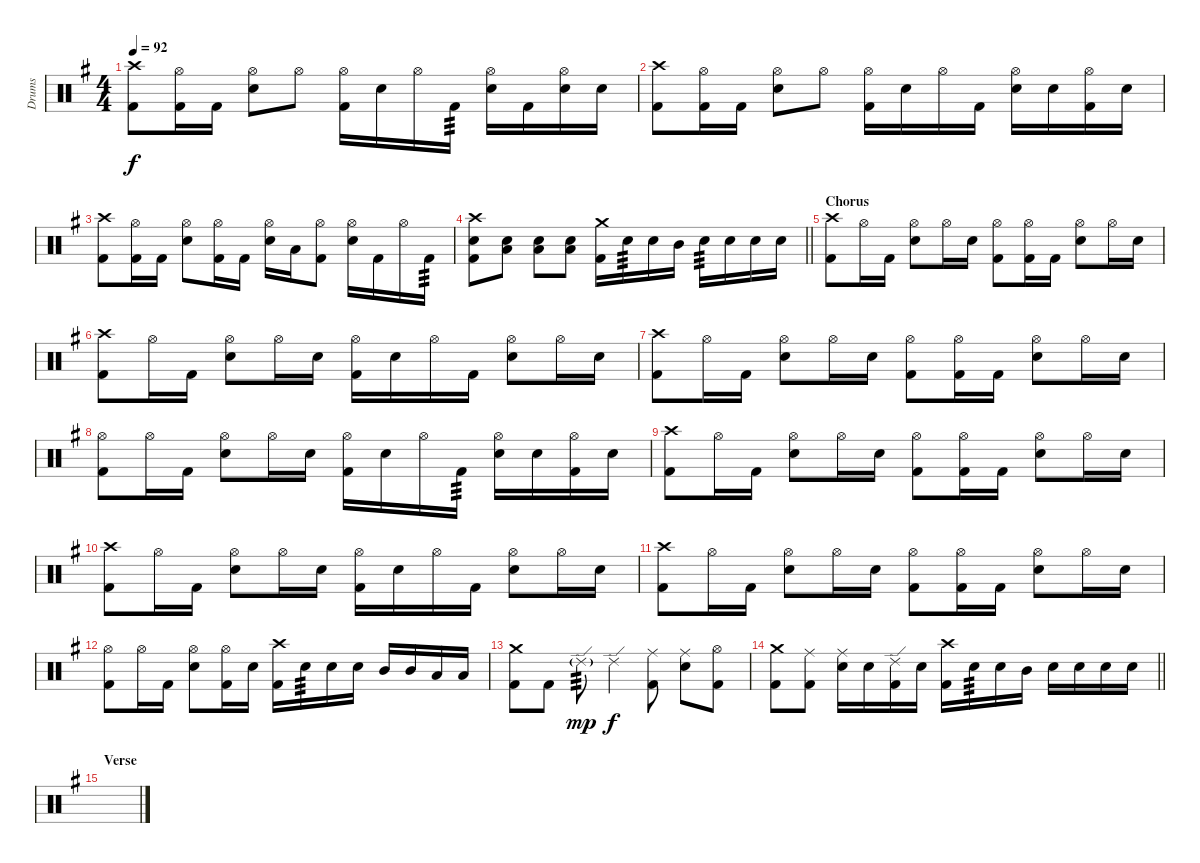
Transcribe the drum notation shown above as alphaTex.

\track ("Drums" "Drums") {instrument percussion}
\staff {score}
\articulation defaults
\ts (4 4)
\tempo 92
\clef neutral
\ks g
("Crash high (hit)" "Kick (hit) 2").8{dy f} ("Hi-Hat (open)" "Kick (hit) 2").16 "Kick (hit) 2".16 ("Hi-Hat (open)" "Electric Snare (hit)").8 "Hi-Hat (open)".8 ("Hi-Hat (open)" "Kick (hit) 2").16 "Electric Snare (hit)".16 "Hi-Hat (open)".16 "Kick (hit) 2".16{tp 3} ("Hi-Hat (open)" "Electric Snare (hit)").16 "Kick (hit) 2".16 ("Hi-Hat (open)" "Electric Snare (hit)").16 "Electric Snare (hit)".16 |
("Crash high (hit)" "Kick (hit) 2").8 ("Hi-Hat (open)" "Kick (hit) 2").16 "Kick (hit) 2".16 ("Hi-Hat (open)" "Electric Snare (hit)").8 "Hi-Hat (open)".8 ("Hi-Hat (open)" "Kick (hit) 2").16 "Electric Snare (hit)".16 "Hi-Hat (open)".16 "Kick (hit) 2".16 ("Hi-Hat (open)" "Electric Snare (hit)").16 "Electric Snare (hit)".16 ("Hi-Hat (open)" "Kick (hit) 2").16 "Electric Snare (hit)".16 |
("Crash high (hit)" "Kick (hit) 2").8 ("Hi-Hat (open)" "Kick (hit) 2").16 "Kick (hit) 2".16 ("Hi-Hat (open)" "Electric Snare (hit)").8 ("Hi-Hat (open)" "Kick (hit) 2").16 "Kick (hit) 2".16 ("Hi-Hat (open)" "Electric Snare (hit)").16 "Low Tom (hit)".16 ("Hi-Hat (open)" "Kick (hit) 2").8 ("Hi-Hat (open)" "Electric Snare (hit)").16 "Kick (hit) 2".16 "Hi-Hat (open)".16 "Kick (hit) 2".16{tp 3} |
\barLineRight lightlight
("Crash high (hit)" "Electric Snare (hit)" "Kick (hit) 2").8 ("Electric Snare (hit)" "Low Tom (hit)").8 ("Electric Snare (hit)" "Low Tom (hit)").8 ("Electric Snare (hit)" "Low Tom (hit)").8 ("Crash medium (hit)" "Kick (hit) 2").16 "Electric Snare (hit)".16{tp 3} "Electric Snare (hit)".16 "Mid Tom (hit)".16 "Electric Snare (hit)".16{tp 3} "Electric Snare (hit)".16 "Electric Snare (hit)".16 "Electric Snare (hit)".16 |
\section ("" "Chorus")
("Crash high (hit)" "Kick (hit) 2").8 "Hi-Hat (open)".16 "Kick (hit) 2".16 ("Hi-Hat (open)" "Electric Snare (hit)").8 "Hi-Hat (open)".16 "Electric Snare (hit)".16 ("Hi-Hat (open)" "Kick (hit) 2").8 ("Hi-Hat (open)" "Kick (hit) 2").16 "Kick (hit) 2".16 ("Hi-Hat (open)" "Electric Snare (hit)").8 "Hi-Hat (open)".16 "Electric Snare (hit)".16 |
("Crash high (hit)" "Kick (hit) 2").8 "Hi-Hat (open)".16 "Kick (hit) 2".16 ("Hi-Hat (open)" "Electric Snare (hit)").8 "Hi-Hat (open)".16 "Electric Snare (hit)".16 ("Hi-Hat (open)" "Kick (hit) 2").16 "Electric Snare (hit)".16 "Hi-Hat (open)".16 "Kick (hit) 2".16 ("Hi-Hat (open)" "Electric Snare (hit)").8 "Hi-Hat (open)".16 "Electric Snare (hit)".16 |
("Crash high (hit)" "Kick (hit) 2").8 "Hi-Hat (open)".16 "Kick (hit) 2".16 ("Hi-Hat (open)" "Electric Snare (hit)").8 "Hi-Hat (open)".16 "Electric Snare (hit)".16 ("Hi-Hat (open)" "Kick (hit) 2").8 ("Hi-Hat (open)" "Kick (hit) 2").16 "Kick (hit) 2".16 ("Hi-Hat (open)" "Electric Snare (hit)").8 "Hi-Hat (open)".16 "Electric Snare (hit)".16 |
("Hi-Hat (open)" "Kick (hit) 2").8 "Hi-Hat (open)".16 "Kick (hit) 2".16 ("Hi-Hat (open)" "Electric Snare (hit)").8 "Hi-Hat (open)".16 "Electric Snare (hit)".16 ("Hi-Hat (open)" "Kick (hit) 2").16 "Electric Snare (hit)".16 "Hi-Hat (open)".16 "Kick (hit) 2".16{tp 3} ("Hi-Hat (open)" "Electric Snare (hit)").16 "Electric Snare (hit)".16 ("Hi-Hat (open)" "Kick (hit) 2").16 "Electric Snare (hit)".16 |
("Crash high (hit)" "Kick (hit) 2").8 "Hi-Hat (open)".16 "Kick (hit) 2".16 ("Hi-Hat (open)" "Electric Snare (hit)").8 "Hi-Hat (open)".16 "Electric Snare (hit)".16 ("Hi-Hat (open)" "Kick (hit) 2").8 ("Hi-Hat (open)" "Kick (hit) 2").16 "Kick (hit) 2".16 ("Hi-Hat (open)" "Electric Snare (hit)").8 "Hi-Hat (open)".16 "Electric Snare (hit)".16 |
("Crash high (hit)" "Kick (hit) 2").8 "Hi-Hat (open)".16 "Kick (hit) 2".16 ("Hi-Hat (open)" "Electric Snare (hit)").8 "Hi-Hat (open)".16 "Electric Snare (hit)".16 ("Hi-Hat (open)" "Kick (hit) 2").16 "Electric Snare (hit)".16 "Hi-Hat (open)".16 "Kick (hit) 2".16 ("Hi-Hat (open)" "Electric Snare (hit)").8 "Hi-Hat (open)".16 "Electric Snare (hit)".16 |
("Crash high (hit)" "Kick (hit) 2").8 "Hi-Hat (open)".16 "Kick (hit) 2".16 ("Hi-Hat (open)" "Electric Snare (hit)").8 "Hi-Hat (open)".16 "Electric Snare (hit)".16 ("Hi-Hat (open)" "Kick (hit) 2").8 ("Hi-Hat (open)" "Kick (hit) 2").16 "Kick (hit) 2".16 ("Hi-Hat (open)" "Electric Snare (hit)").8 "Hi-Hat (open)".16 "Electric Snare (hit)".16 |
("Hi-Hat (open)" "Kick (hit) 2").8 "Hi-Hat (open)".16 "Kick (hit) 2".16 ("Hi-Hat (open)" "Electric Snare (hit)").8 ("Hi-Hat (open)" "Kick (hit) 2").16 "Electric Snare (hit)".16 ("Crash high (hit)" "Kick (hit) 2").16 "Electric Snare (hit)".16{tp 3} "Electric Snare (hit)".16 "Electric Snare (hit)".16 "Mid Tom (hit)".16 "Mid Tom (hit)".16 "Low Tom (hit)".16 "Low Tom (hit)".16 |
("Crash medium (hit)" "Kick (hit) 2").8 "Kick (hit) 2".8 "Ride (edge) 2"{g}.8{tp 3 dy mp} "Ride (edge) 2".4{dy f} ("Ride (middle)" "Kick (hit) 2").8 ("Ride (middle)" "Electric Snare (hit)").8 ("Hi-Hat (open)" "Kick (hit) 2").8 |
\barLineRight lightlight
("Crash medium (hit)" "Kick (hit) 2").8 ("Ride (middle)" "Kick (hit) 2").8 ("Ride (middle)" "Electric Snare (hit)").16 "Electric Snare (hit)".16 ("Ride (edge) 2" "Kick (hit) 2").16 "Electric Snare (hit)".16 ("Crash high (hit)" "Kick (hit) 2").16 "Electric Snare (hit)".16{tp 3} "Electric Snare (hit)".16 "Mid Tom (hit)".16 "Electric Snare (hit)".16 "Electric Snare (hit)".16 "Electric Snare (hit)".16 "Electric Snare (hit)".16 |
\section ("" "Verse")
